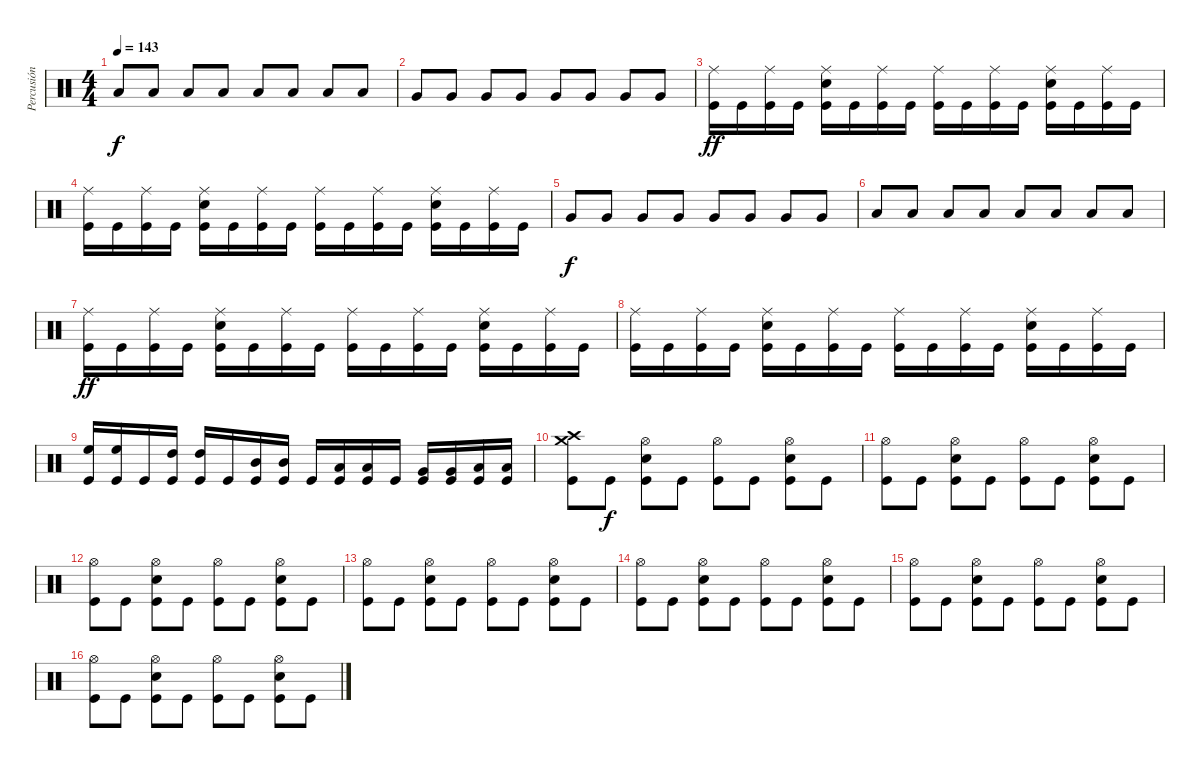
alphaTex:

\track ("Percusión" "Percusión") {instrument percussion}
\staff {score}
\articulation defaults
\ts (4 4)
\tempo 143
\clef neutral
\ks c "Low Floor Tom (hit)".8{dy f} "Low Floor Tom (hit)".8 "Low Floor Tom (hit)".8 "Low Floor Tom (hit)".8 "Low Floor Tom (hit)".8 "Low Floor Tom (hit)".8 "Low Floor Tom (hit)".8 "Low Floor Tom (hit)".8
|
"Very Low Tom (hit)".8 "Very Low Tom (hit)".8 "Very Low Tom (hit)".8 "Very Low Tom (hit)".8 "Very Low Tom (hit)".8 "Very Low Tom (hit)".8 "Very Low Tom (hit)".8 "Very Low Tom (hit)".8 |
("Ride (middle)" "Kick (hit)").16{dy ff} "Kick (hit)".16 ("Ride (middle)" "Kick (hit)").16 "Kick (hit)".16 ("Ride (middle)" "Snare (hit) 2" "Kick (hit)").16 "Kick (hit)".16 ("Ride (middle)" "Kick (hit)").16 "Kick (hit)".16 ("Ride (middle)" "Kick (hit)").16 "Kick (hit)".16 ("Ride (middle)" "Kick (hit)").16 "Kick (hit)".16 ("Ride (middle)" "Snare (hit) 2" "Kick (hit)").16 "Kick (hit)".16 ("Ride (middle)" "Kick (hit)").16 "Kick (hit)".16 |
("Ride (middle)" "Kick (hit)").16 "Kick (hit)".16 ("Ride (middle)" "Kick (hit)").16 "Kick (hit)".16 ("Ride (middle)" "Snare (hit) 2" "Kick (hit)").16 "Kick (hit)".16 ("Ride (middle)" "Kick (hit)").16 "Kick (hit)".16 ("Ride (middle)" "Kick (hit)").16 "Kick (hit)".16 ("Ride (middle)" "Kick (hit)").16 "Kick (hit)".16 ("Ride (middle)" "Snare (hit) 2" "Kick (hit)").16 "Kick (hit)".16 ("Ride (middle)" "Kick (hit)").16 "Kick (hit)".16 |
"Very Low Tom (hit)".8{dy f} "Very Low Tom (hit)".8 "Very Low Tom (hit)".8 "Very Low Tom (hit)".8 "Very Low Tom (hit)".8 "Very Low Tom (hit)".8 "Very Low Tom (hit)".8 "Very Low Tom (hit)".8 |
"Low Floor Tom (hit)".8 "Low Floor Tom (hit)".8 "Low Floor Tom (hit)".8 "Low Floor Tom (hit)".8 "Low Floor Tom (hit)".8 "Low Floor Tom (hit)".8 "Low Floor Tom (hit)".8 "Low Floor Tom (hit)".8 |
("Ride (middle)" "Kick (hit)").16{dy ff} "Kick (hit)".16 ("Ride (middle)" "Kick (hit)").16 "Kick (hit)".16 ("Ride (middle)" "Snare (hit) 2" "Kick (hit)").16 "Kick (hit)".16 ("Ride (middle)" "Kick (hit)").16 "Kick (hit)".16 ("Ride (middle)" "Kick (hit)").16 "Kick (hit)".16 ("Ride (middle)" "Kick (hit)").16 "Kick (hit)".16 ("Ride (middle)" "Snare (hit) 2" "Kick (hit)").16 "Kick (hit)".16 ("Ride (middle)" "Kick (hit)").16 "Kick (hit)".16 |
("Ride (middle)" "Kick (hit)").16 "Kick (hit)".16 ("Ride (middle)" "Kick (hit)").16 "Kick (hit)".16 ("Ride (middle)" "Snare (hit) 2" "Kick (hit)").16 "Kick (hit)".16 ("Ride (middle)" "Kick (hit)").16 "Kick (hit)".16 ("Ride (middle)" "Kick (hit)").16 "Kick (hit)".16 ("Ride (middle)" "Kick (hit)").16 "Kick (hit)".16 ("Ride (middle)" "Snare (hit) 2" "Kick (hit)").16 "Kick (hit)".16 ("Ride (middle)" "Kick (hit)").16 "Kick (hit)".16 |
("High Floor Tom (hit)" "Kick (hit)").16 ("High Floor Tom (hit)" "Kick (hit)").16 "Kick (hit)".16 ("High Tom (hit)" "Kick (hit)").16 ("High Tom (hit)" "Kick (hit)").16 "Kick (hit)".16 ("Mid Tom (hit)" "Kick (hit)").16 ("Mid Tom (hit)" "Kick (hit)").16 "Kick (hit)".16 ("Low Tom (hit)" "Kick (hit)").16 ("Low Tom (hit)" "Kick (hit)").16 "Kick (hit)".16 ("Very Low Tom (hit)" "Kick (hit)").16 ("Very Low Tom (hit)" "Kick (hit)").16 ("Low Floor Tom (hit)" "Kick (hit)").16 ("Low Floor Tom (hit)" "Kick (hit)").16 |
("Crash high (hit)" "Crash medium (hit)" "Kick (hit)").8 "Kick (hit)".8{dy f} ("Hi-Hat (open)" "Snare (hit) 2" "Kick (hit)").8 "Kick (hit)".8 ("Hi-Hat (open)" "Kick (hit)").8 "Kick (hit)".8 ("Hi-Hat (open)" "Snare (hit) 2" "Kick (hit)").8 "Kick (hit)".8 |
("Hi-Hat (open)" "Kick (hit)").8 "Kick (hit)".8 ("Hi-Hat (open)" "Snare (hit) 2" "Kick (hit)").8 "Kick (hit)".8 ("Hi-Hat (open)" "Kick (hit)").8 "Kick (hit)".8 ("Hi-Hat (open)" "Snare (hit) 2" "Kick (hit)").8 "Kick (hit)".8 |
("Hi-Hat (open)" "Kick (hit)").8 "Kick (hit)".8 ("Hi-Hat (open)" "Snare (hit) 2" "Kick (hit)").8 "Kick (hit)".8 ("Hi-Hat (open)" "Kick (hit)").8 "Kick (hit)".8 ("Hi-Hat (open)" "Snare (hit) 2" "Kick (hit)").8 "Kick (hit)".8 |
("Hi-Hat (open)" "Kick (hit)").8 "Kick (hit)".8 ("Hi-Hat (open)" "Snare (hit) 2" "Kick (hit)").8 "Kick (hit)".8 ("Hi-Hat (open)" "Kick (hit)").8 "Kick (hit)".8 ("Hi-Hat (open)" "Snare (hit) 2" "Kick (hit)").8 "Kick (hit)".8 |
("Hi-Hat (open)" "Kick (hit)").8 "Kick (hit)".8 ("Hi-Hat (open)" "Snare (hit) 2" "Kick (hit)").8 "Kick (hit)".8 ("Hi-Hat (open)" "Kick (hit)").8 "Kick (hit)".8 ("Hi-Hat (open)" "Snare (hit) 2" "Kick (hit)").8 "Kick (hit)".8 |
("Hi-Hat (open)" "Kick (hit)").8 "Kick (hit)".8 ("Hi-Hat (open)" "Snare (hit) 2" "Kick (hit)").8 "Kick (hit)".8 ("Hi-Hat (open)" "Kick (hit)").8 "Kick (hit)".8 ("Hi-Hat (open)" "Snare (hit) 2" "Kick (hit)").8 "Kick (hit)".8 |
("Hi-Hat (open)" "Kick (hit)").8 "Kick (hit)".8 ("Hi-Hat (open)" "Snare (hit) 2" "Kick (hit)").8 "Kick (hit)".8 ("Hi-Hat (open)" "Kick (hit)").8 "Kick (hit)".8 ("Hi-Hat (open)" "Snare (hit) 2" "Kick (hit)").8 "Kick (hit)".8
